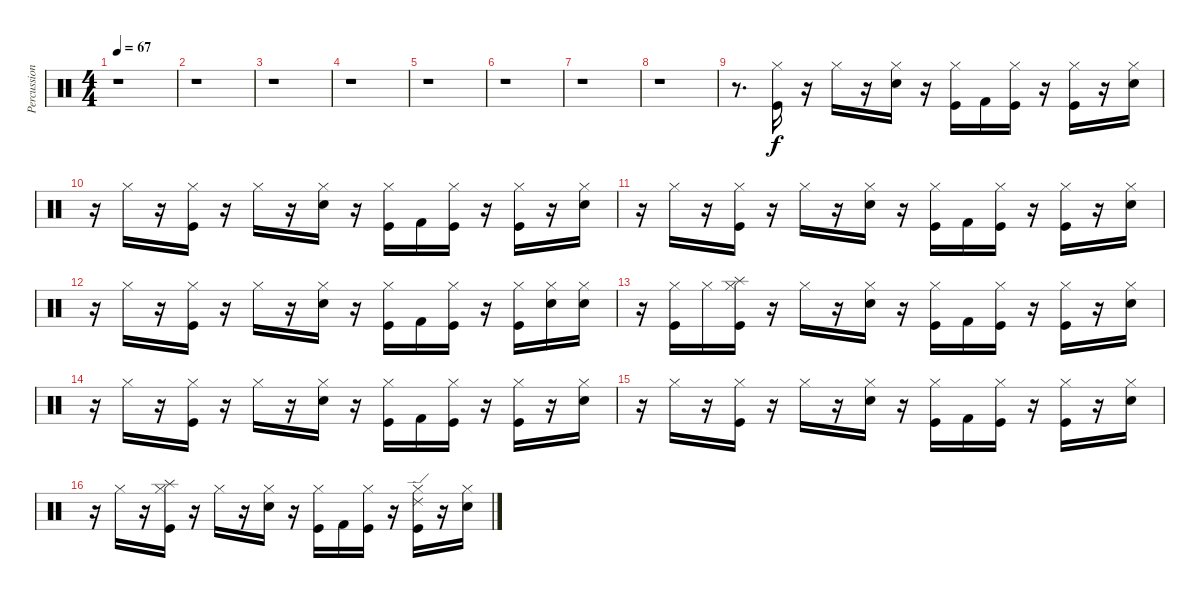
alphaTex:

\track ("Percussion" "Percussion") {instrument percussion}
\staff {score}
\articulation defaults
\ts (4 4)
\tempo 67
\clef neutral
\ks c
r.1{dy f} |
r.1 |
r.1 |
r.1 |
r.1 |
r.1 |
r.1 |
r.1 |
r.8{d} ("Hi-Hat (closed)" "Kick (hit)").16 r.16 "Hi-Hat (closed)".16 r.16 ("Hi-Hat (closed)" "Electric Snare (hit)").16 r.16 ("Hi-Hat (closed)" "Kick (hit)").16 "Kick (hit) 2".16 ("Hi-Hat (closed)" "Kick (hit)").16 r.16 ("Hi-Hat (closed)" "Kick (hit)").16 r.16 ("Hi-Hat (closed)" "Electric Snare (hit)").16 |
r.16 "Hi-Hat (closed)".16 r.16 ("Hi-Hat (closed)" "Kick (hit)").16 r.16 "Hi-Hat (closed)".16 r.16 ("Hi-Hat (closed)" "Electric Snare (hit)").16 r.16 ("Hi-Hat (closed)" "Kick (hit)").16 "Kick (hit) 2".16 ("Hi-Hat (closed)" "Kick (hit)").16 r.16 ("Hi-Hat (closed)" "Kick (hit)").16 r.16 ("Hi-Hat (closed)" "Electric Snare (hit)").16 |
r.16 "Hi-Hat (closed)".16 r.16 ("Hi-Hat (closed)" "Kick (hit)").16 r.16 "Hi-Hat (closed)".16 r.16 ("Hi-Hat (closed)" "Electric Snare (hit)").16 r.16 ("Hi-Hat (closed)" "Kick (hit)").16 "Kick (hit) 2".16 ("Hi-Hat (closed)" "Kick (hit)").16 r.16 ("Hi-Hat (closed)" "Kick (hit)").16 r.16 ("Hi-Hat (closed)" "Electric Snare (hit)").16 |
r.16 "Hi-Hat (closed)".16 r.16 ("Hi-Hat (closed)" "Kick (hit)").16 r.16 "Hi-Hat (closed)".16 r.16 ("Hi-Hat (closed)" "Electric Snare (hit)").16 r.16 ("Hi-Hat (closed)" "Kick (hit)").16 "Kick (hit) 2".16 ("Hi-Hat (closed)" "Kick (hit)").16 r.16 ("Hi-Hat (closed)" "Kick (hit)").16 ("Hi-Hat (closed)" "Electric Snare (hit)").16 ("Hi-Hat (closed)" "Electric Snare (hit)").16 |
r.16 ("Hi-Hat (closed)" "Kick (hit)").16 "Hi-Hat (closed)".16 ("Hi-Hat (closed)" "Kick (hit)" "Splash (hit)").16 r.16 "Hi-Hat (closed)".16 r.16 ("Hi-Hat (closed)" "Electric Snare (hit)").16 r.16 ("Hi-Hat (closed)" "Kick (hit)").16 "Kick (hit) 2".16 ("Hi-Hat (closed)" "Kick (hit)").16 r.16 ("Hi-Hat (closed)" "Kick (hit)").16 r.16 ("Hi-Hat (closed)" "Electric Snare (hit)").16 |
r.16 "Hi-Hat (closed)".16 r.16 ("Hi-Hat (closed)" "Kick (hit)").16 r.16 "Hi-Hat (closed)".16 r.16 ("Hi-Hat (closed)" "Electric Snare (hit)").16 r.16 ("Hi-Hat (closed)" "Kick (hit)").16 "Kick (hit) 2".16 ("Hi-Hat (closed)" "Kick (hit)").16 r.16 ("Hi-Hat (closed)" "Kick (hit)").16 r.16 ("Hi-Hat (closed)" "Electric Snare (hit)").16 |
r.16 "Hi-Hat (closed)".16 r.16 ("Hi-Hat (closed)" "Kick (hit)").16 r.16 "Hi-Hat (closed)".16 r.16 ("Hi-Hat (closed)" "Electric Snare (hit)").16 r.16 ("Hi-Hat (closed)" "Kick (hit)").16 "Kick (hit) 2".16 ("Hi-Hat (closed)" "Kick (hit)").16 r.16 ("Hi-Hat (closed)" "Kick (hit)").16 r.16 ("Hi-Hat (closed)" "Electric Snare (hit)").16 |
r.16 "Hi-Hat (closed)".16 r.16 ("Hi-Hat (closed)" "Kick (hit)" "Splash (hit)").16 r.16 "Hi-Hat (closed)".16 r.16 ("Hi-Hat (closed)" "Electric Snare (hit)").16 r.16 ("Hi-Hat (closed)" "Kick (hit)").16 "Kick (hit) 2".16 ("Hi-Hat (closed)" "Kick (hit)").16 r.16 ("Hi-Hat (closed)" "Kick (hit)" "Ride (edge) 2").16 r.16 ("Hi-Hat (closed)" "Electric Snare (hit)").16
